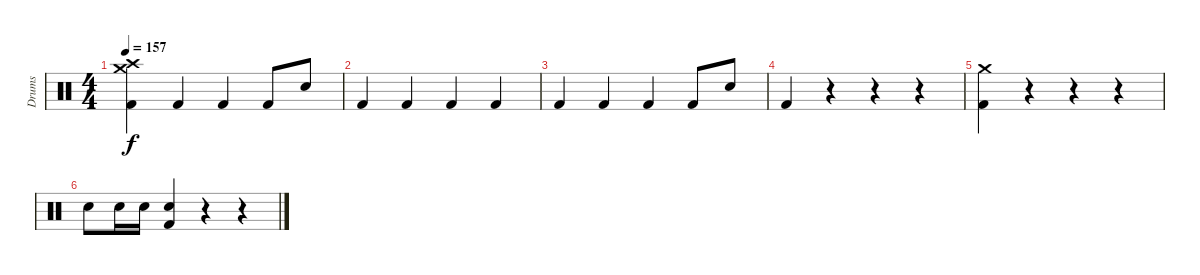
\track ("Drums" "Drums") {instrument percussion}
\staff {score}
\articulation defaults
\ts (4 4)
\tempo 157
\clef neutral
\ks c
("Crash medium (hit)" "Crash high (hit)" "Kick (hit) 2").4{dy f} "Kick (hit) 2".4 "Kick (hit) 2".4 "Kick (hit) 2".8 "Electric Snare (hit)".8 |
"Kick (hit) 2".4 "Kick (hit) 2".4 "Kick (hit) 2".4 "Kick (hit) 2".4 |
"Kick (hit) 2".4 "Kick (hit) 2".4 "Kick (hit) 2".4 "Kick (hit) 2".8 "Electric Snare (hit)".8 |
"Kick (hit) 2".4 r.4 r.4 r.4 |
("Crash medium (hit)" "Kick (hit) 2").4 r.4 r.4 r.4 |
"Electric Snare (hit)".8 "Electric Snare (hit)".16 "Electric Snare (hit)".16 ("Electric Snare (hit)" "Kick (hit) 2").4 r.4 r.4
